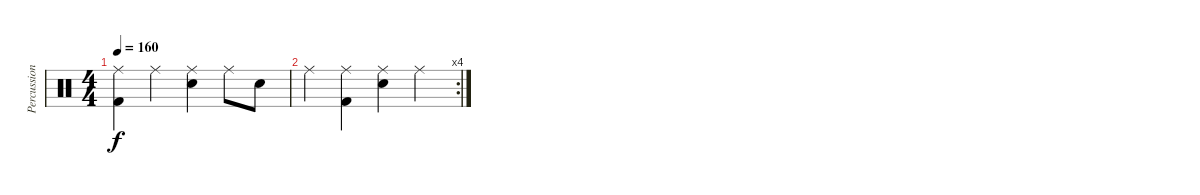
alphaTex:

\track ("Percussion" "Percussion") {instrument percussion}
\staff {score}
\articulation defaults
\ts (4 4)
\tempo 160
\clef neutral
\ks c
("Kick (hit) 2" "Ride (middle)").4{dy f} "Ride (middle)".4 ("Snare (hit) 2" "Ride (middle)").4 "Ride (middle)".8 "Snare (hit) 2".8 |
\rc 4 "Ride (middle)".4
("Kick (hit) 2" "Ride (middle)").4 ("Snare (hit) 2" "Ride (middle)").4 "Ride (middle)".4
